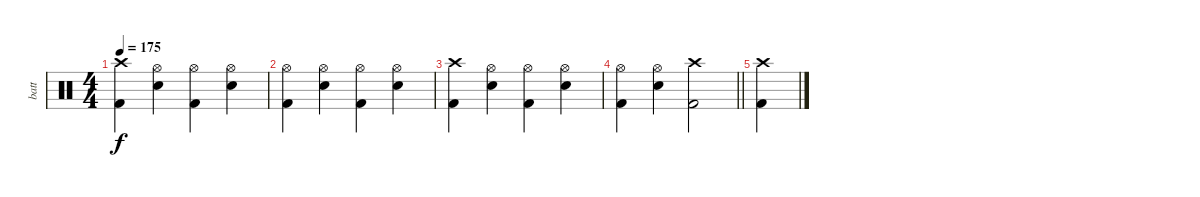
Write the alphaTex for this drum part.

\track ("batt" "batt") {instrument percussion}
\staff {score}
\articulation defaults
\ts (4 4)
\tempo 175
\clef neutral
\ks c
("Crash high (hit)" "Kick (hit) 2").4{dy f} ("Hi-Hat (open)" "Electric Snare (hit)").4 ("Hi-Hat (open)" "Kick (hit) 2").4 ("Hi-Hat (open)" "Electric Snare (hit)").4 |
("Hi-Hat (open)" "Kick (hit) 2").4 ("Hi-Hat (open)" "Electric Snare (hit)").4 ("Hi-Hat (open)" "Kick (hit) 2").4 ("Hi-Hat (open)" "Electric Snare (hit)").4 |
("Crash high (hit)" "Kick (hit) 2").4 ("Hi-Hat (open)" "Electric Snare (hit)").4 ("Hi-Hat (open)" "Kick (hit) 2").4 ("Hi-Hat (open)" "Electric Snare (hit)").4 |
\barLineRight lightlight
("Hi-Hat (open)" "Kick (hit) 2").4 ("Hi-Hat (open)" "Electric Snare (hit)").4 ("Crash high (hit)" "Kick (hit) 2").2 |
("Crash high (hit)" "Kick (hit) 2").4
